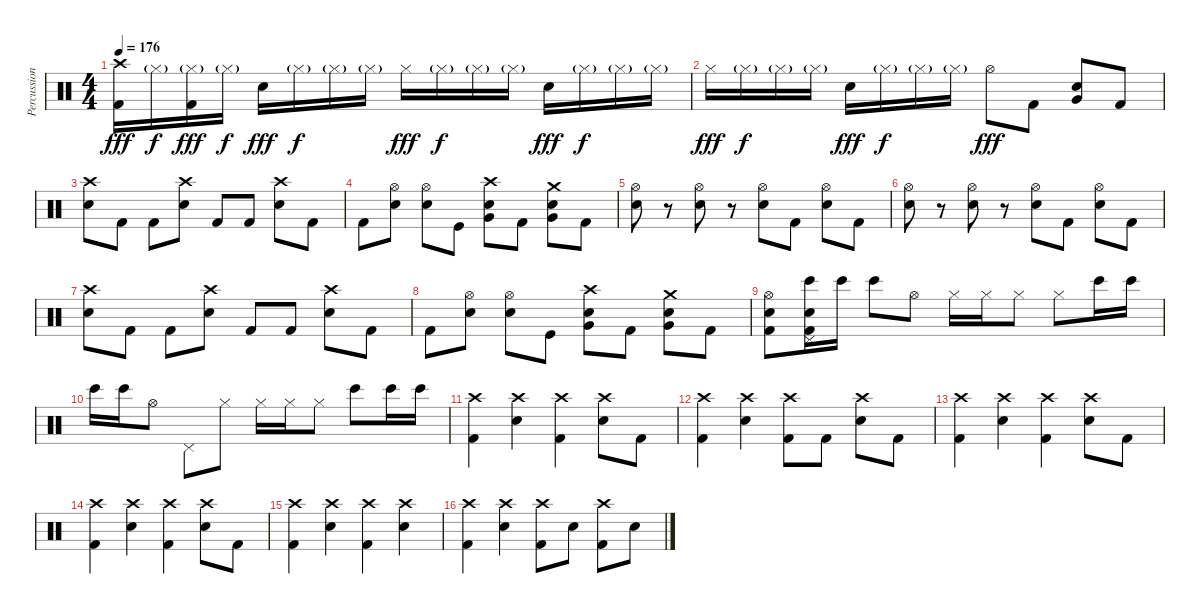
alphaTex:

\track ("Percussion" "Percussion") {instrument percussion}
\staff {score}
\articulation defaults
\ts (4 4)
\tempo 176
\clef neutral
\ks c
("Crash high (hit)" "Kick (hit) 2").16{dy fff} "Hi-Hat (closed)"{g}.16{dy f} ("Hi-Hat (closed)"{g} "Kick (hit) 2").16{dy fff} "Hi-Hat (closed)"{g}.16{dy f} "Snare (hit) 2".16{dy fff} "Hi-Hat (closed)"{g}.16{dy f} "Hi-Hat (closed)"{g}.16 "Hi-Hat (closed)"{g}.16 "Hi-Hat (closed)".16{dy fff} "Hi-Hat (closed)"{g}.16{dy f} "Hi-Hat (closed)"{g}.16 "Hi-Hat (closed)"{g}.16 "Snare (hit) 2".16{dy fff} "Hi-Hat (closed)"{g}.16{dy f} "Hi-Hat (closed)"{g}.16 "Hi-Hat (closed)"{g}.16 |
"Hi-Hat (closed)".16{dy fff} "Hi-Hat (closed)"{g}.16{dy f} "Hi-Hat (closed)"{g}.16 "Hi-Hat (closed)"{g}.16 "Snare (hit) 2".16{dy fff} "Hi-Hat (closed)"{g}.16{dy f} "Hi-Hat (closed)"{g}.16 "Hi-Hat (closed)"{g}.16 "Hi-Hat (open)".8{dy fff} "Kick (hit) 2".8 ("Snare (hit) 2" "Very Low Tom (hit)").8 "Kick (hit) 2".8 |
("Crash high (hit)" "Snare (hit) 2").8 "Kick (hit) 2".8 "Kick (hit) 2".8 ("Crash high (hit)" "Snare (hit) 2").8 "Kick (hit) 2".8 "Kick (hit) 2".8 ("Crash high (hit)" "Snare (hit) 2").8 "Kick (hit) 2".8 |
"Kick (hit) 2".8 ("Hi-Hat (open)" "Snare (hit) 2").8 ("Hi-Hat (open)" "Snare (hit) 2").8 "Kick (hit)".8 ("Crash high (hit)" "Snare (hit) 2" "Very Low Tom (hit)").8 "Kick (hit) 2".8 ("Crash medium (hit)" "Snare (hit) 2" "Very Low Tom (hit)").8 "Kick (hit) 2".8 |
("Hi-Hat (open)" "Snare (hit) 2").8 r.8 ("Hi-Hat (open)" "Snare (hit) 2").8 r.8 ("Hi-Hat (open)" "Snare (hit) 2").8 "Kick (hit) 2".8 ("Hi-Hat (open)" "Snare (hit) 2").8 "Kick (hit) 2".8 |
("Hi-Hat (open)" "Snare (hit) 2").8 r.8 ("Hi-Hat (open)" "Snare (hit) 2").8 r.8 ("Hi-Hat (open)" "Snare (hit) 2").8 "Kick (hit) 2".8 ("Hi-Hat (open)" "Snare (hit) 2").8 "Kick (hit) 2".8 |
("Crash high (hit)" "Snare (hit) 2").8 "Kick (hit) 2".8 "Kick (hit) 2".8 ("Crash high (hit)" "Snare (hit) 2").8 "Kick (hit) 2".8 "Kick (hit) 2".8 ("Crash high (hit)" "Snare (hit) 2").8 "Kick (hit) 2".8 |
"Kick (hit) 2".8 ("Hi-Hat (open)" "Snare (hit) 2").8 ("Hi-Hat (open)" "Snare (hit) 2").8 "Kick (hit)".8 ("Crash high (hit)" "Snare (hit) 2" "Very Low Tom (hit)").8 "Kick (hit) 2".8 ("Crash medium (hit)" "Snare (hit) 2" "Very Low Tom (hit)").8 "Kick (hit) 2".8 |
("Hi-Hat (open)" "Snare (hit) 2" "Kick (hit) 2").8 ("Pedal Hi-Hat (hit)" "Bongo High (hit)" "Snare (hit) 2" "Kick (hit) 2").16 "Bongo High (hit)".16 "Bongo High (hit)".8 "Hi-Hat (open)".8 "Hi-Hat (closed)".16 "Hi-Hat (closed)".16 "Hi-Hat (closed)".8 "Hi-Hat (closed)".8 "Bongo High (hit)".16 "Bongo High (hit)".16 |
"Bongo High (hit)".16 "Bongo High (hit)".16 "Hi-Hat (open)".8 "Pedal Hi-Hat (hit)".8 "Hi-Hat (closed)".8 "Hi-Hat (closed)".16 "Hi-Hat (closed)".16 "Hi-Hat (closed)".8 "Bongo High (hit)".8 "Bongo High (hit)".16 "Bongo High (hit)".16 |
("Crash high (hit)" "Kick (hit) 2").4 ("Crash high (hit)" "Snare (hit) 2").4 ("Crash high (hit)" "Kick (hit) 2").4 ("Crash high (hit)" "Snare (hit) 2").8 "Kick (hit) 2".8 |
("Crash high (hit)" "Kick (hit) 2").4 ("Crash high (hit)" "Snare (hit) 2").4 ("Crash high (hit)" "Kick (hit) 2").8 "Kick (hit) 2".8 ("Crash high (hit)" "Snare (hit) 2").8 "Kick (hit) 2".8 |
("Crash high (hit)" "Kick (hit) 2").4 ("Crash high (hit)" "Snare (hit) 2").4 ("Crash high (hit)" "Kick (hit) 2").4 ("Crash high (hit)" "Snare (hit) 2").8 "Kick (hit) 2".8 |
("Crash high (hit)" "Kick (hit) 2").4 ("Crash high (hit)" "Snare (hit) 2").4 ("Crash high (hit)" "Kick (hit) 2").4 ("Crash high (hit)" "Snare (hit) 2").8 "Kick (hit) 2".8 |
("Crash high (hit)" "Kick (hit) 2").4 ("Crash high (hit)" "Snare (hit) 2").4 ("Crash high (hit)" "Kick (hit) 2").4 ("Crash high (hit)" "Snare (hit) 2").4 |
("Crash high (hit)" "Kick (hit) 2").4 ("Crash high (hit)" "Snare (hit) 2").4 ("Crash high (hit)" "Kick (hit) 2").8 "Snare (hit) 2".8 ("Crash high (hit)" "Kick (hit) 2").8 "Snare (hit) 2".8
